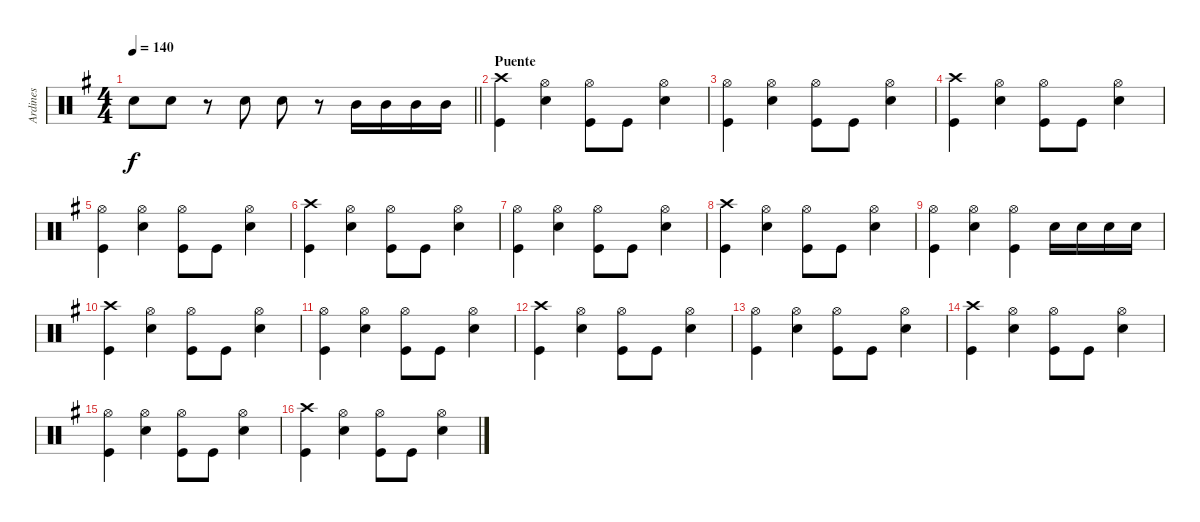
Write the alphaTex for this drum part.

\track ("Ardines" "Ardines") {instrument percussion}
\staff {score}
\articulation defaults
\ts (4 4)
\tempo 140
\clef neutral
\barLineRight lightlight
\ks g "Electric Snare (hit)".8{dy f} "Electric Snare (hit)".8
r.8 "Electric Snare (hit)".8 "Electric Snare (hit)".8 r.8 "Mid Tom (hit)".16 "Mid Tom (hit)".16 "Mid Tom (hit)".16 "Mid Tom (hit)".16 |
\section ("" "Puente")
("Crash high (hit)" "Kick (hit)").4 ("Hi-Hat (open)" "Electric Snare (hit)").4 ("Hi-Hat (open)" "Kick (hit)").8 "Kick (hit)".8 ("Hi-Hat (open)" "Electric Snare (hit)").4 |
("Hi-Hat (open)" "Kick (hit)").4 ("Hi-Hat (open)" "Electric Snare (hit)").4 ("Hi-Hat (open)" "Kick (hit)").8 "Kick (hit)".8 ("Hi-Hat (open)" "Electric Snare (hit)").4 |
("Crash high (hit)" "Kick (hit)").4 ("Hi-Hat (open)" "Electric Snare (hit)").4 ("Hi-Hat (open)" "Kick (hit)").8 "Kick (hit)".8 ("Hi-Hat (open)" "Electric Snare (hit)").4 |
("Hi-Hat (open)" "Kick (hit)").4 ("Hi-Hat (open)" "Electric Snare (hit)").4 ("Hi-Hat (open)" "Kick (hit)").8 "Kick (hit)".8 ("Hi-Hat (open)" "Electric Snare (hit)").4 |
("Crash high (hit)" "Kick (hit)").4 ("Hi-Hat (open)" "Electric Snare (hit)").4 ("Hi-Hat (open)" "Kick (hit)").8 "Kick (hit)".8 ("Hi-Hat (open)" "Electric Snare (hit)").4 |
("Hi-Hat (open)" "Kick (hit)").4 ("Hi-Hat (open)" "Electric Snare (hit)").4 ("Hi-Hat (open)" "Kick (hit)").8 "Kick (hit)".8 ("Hi-Hat (open)" "Electric Snare (hit)").4 |
("Crash high (hit)" "Kick (hit)").4 ("Hi-Hat (open)" "Electric Snare (hit)").4 ("Hi-Hat (open)" "Kick (hit)").8 "Kick (hit)".8 ("Hi-Hat (open)" "Electric Snare (hit)").4 |
("Hi-Hat (open)" "Kick (hit)").4 ("Hi-Hat (open)" "Electric Snare (hit)").4 ("Hi-Hat (open)" "Kick (hit)").4 "Electric Snare (hit)".16 "Electric Snare (hit)".16 "Electric Snare (hit)".16 "Electric Snare (hit)".16 |
("Crash high (hit)" "Kick (hit)").4 ("Hi-Hat (open)" "Electric Snare (hit)").4 ("Hi-Hat (open)" "Kick (hit)").8 "Kick (hit)".8 ("Hi-Hat (open)" "Electric Snare (hit)").4 |
("Hi-Hat (open)" "Kick (hit)").4 ("Hi-Hat (open)" "Electric Snare (hit)").4 ("Hi-Hat (open)" "Kick (hit)").8 "Kick (hit)".8 ("Hi-Hat (open)" "Electric Snare (hit)").4 |
("Crash high (hit)" "Kick (hit)").4 ("Hi-Hat (open)" "Electric Snare (hit)").4 ("Hi-Hat (open)" "Kick (hit)").8 "Kick (hit)".8 ("Hi-Hat (open)" "Electric Snare (hit)").4 |
("Hi-Hat (open)" "Kick (hit)").4 ("Hi-Hat (open)" "Electric Snare (hit)").4 ("Hi-Hat (open)" "Kick (hit)").8 "Kick (hit)".8 ("Hi-Hat (open)" "Electric Snare (hit)").4 |
("Crash high (hit)" "Kick (hit)").4 ("Hi-Hat (open)" "Electric Snare (hit)").4 ("Hi-Hat (open)" "Kick (hit)").8 "Kick (hit)".8 ("Hi-Hat (open)" "Electric Snare (hit)").4 |
("Hi-Hat (open)" "Kick (hit)").4 ("Hi-Hat (open)" "Electric Snare (hit)").4 ("Hi-Hat (open)" "Kick (hit)").8 "Kick (hit)".8 ("Hi-Hat (open)" "Electric Snare (hit)").4 |
("Crash high (hit)" "Kick (hit)").4 ("Hi-Hat (open)" "Electric Snare (hit)").4 ("Hi-Hat (open)" "Kick (hit)").8 "Kick (hit)".8 ("Hi-Hat (open)" "Electric Snare (hit)").4
